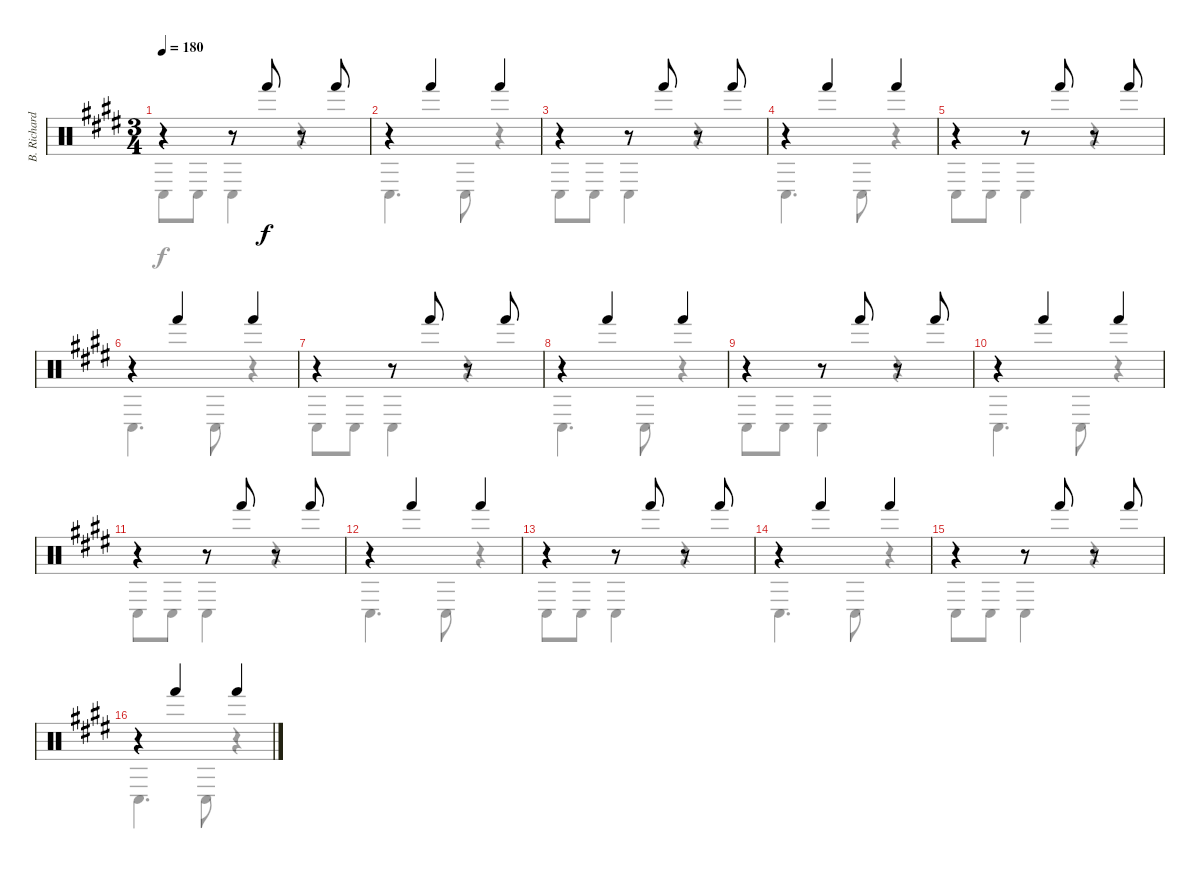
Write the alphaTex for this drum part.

\track ("B. Richardson Percussion" "B. Richard") {instrument percussion}
\staff {score}
\articulation defaults
\voice
\ts (3 4)
\tempo 180
\clef neutral
\ks c#minor
r.4{dy f} r.8 "Hand (hit)".8 r.8 "Hand (hit)".8 |
r.4 "Hand (hit)".4 "Hand (hit)".4 |
r.4 r.8 "Hand (hit)".8 r.8 "Hand (hit)".8 |
r.4 "Hand (hit)".4 "Hand (hit)".4 |
r.4 r.8 "Hand (hit)".8 r.8 "Hand (hit)".8 |
r.4 "Hand (hit)".4 "Hand (hit)".4 |
r.4 r.8 "Hand (hit)".8 r.8 "Hand (hit)".8 |
r.4 "Hand (hit)".4 "Hand (hit)".4 |
r.4 r.8 "Hand (hit)".8 r.8 "Hand (hit)".8 |
r.4 "Hand (hit)".4 "Hand (hit)".4 |
r.4 r.8 "Hand (hit)".8 r.8 "Hand (hit)".8 |
r.4 "Hand (hit)".4 "Hand (hit)".4 |
r.4 r.8 "Hand (hit)".8 r.8 "Hand (hit)".8 |
r.4 "Hand (hit)".4 "Hand (hit)".4 |
r.4 r.8 "Hand (hit)".8 r.8 "Hand (hit)".8 |
r.4 "Hand (hit)".4 "Hand (hit)".4
\voice
\clef neutral
\ottava regular
\simile none
\ks c#minor "Conga low (hit)".8{dy f} "Conga low (hit)".8 "Conga low (hit)".4
r.4 |
"Conga low (hit)".4{d} "Conga low (hit)".8 r.4 |
"Conga low (hit)".8 "Conga low (hit)".8 "Conga low (hit)".4 r.4 |
"Conga low (hit)".4{d} "Conga low (hit)".8 r.4 |
"Conga low (hit)".8 "Conga low (hit)".8 "Conga low (hit)".4 r.4 |
"Conga low (hit)".4{d} "Conga low (hit)".8 r.4 |
"Conga low (hit)".8 "Conga low (hit)".8 "Conga low (hit)".4 r.4 |
"Conga low (hit)".4{d} "Conga low (hit)".8 r.4 |
"Conga low (hit)".8 "Conga low (hit)".8 "Conga low (hit)".4 r.4 |
"Conga low (hit)".4{d} "Conga low (hit)".8 r.4 |
"Conga low (hit)".8 "Conga low (hit)".8 "Conga low (hit)".4 r.4 |
"Conga low (hit)".4{d} "Conga low (hit)".8 r.4 |
"Conga low (hit)".8 "Conga low (hit)".8 "Conga low (hit)".4 r.4 |
"Conga low (hit)".4{d} "Conga low (hit)".8 r.4 |
"Conga low (hit)".8 "Conga low (hit)".8 "Conga low (hit)".4 r.4 |
"Conga low (hit)".4{d} "Conga low (hit)".8 r.4
